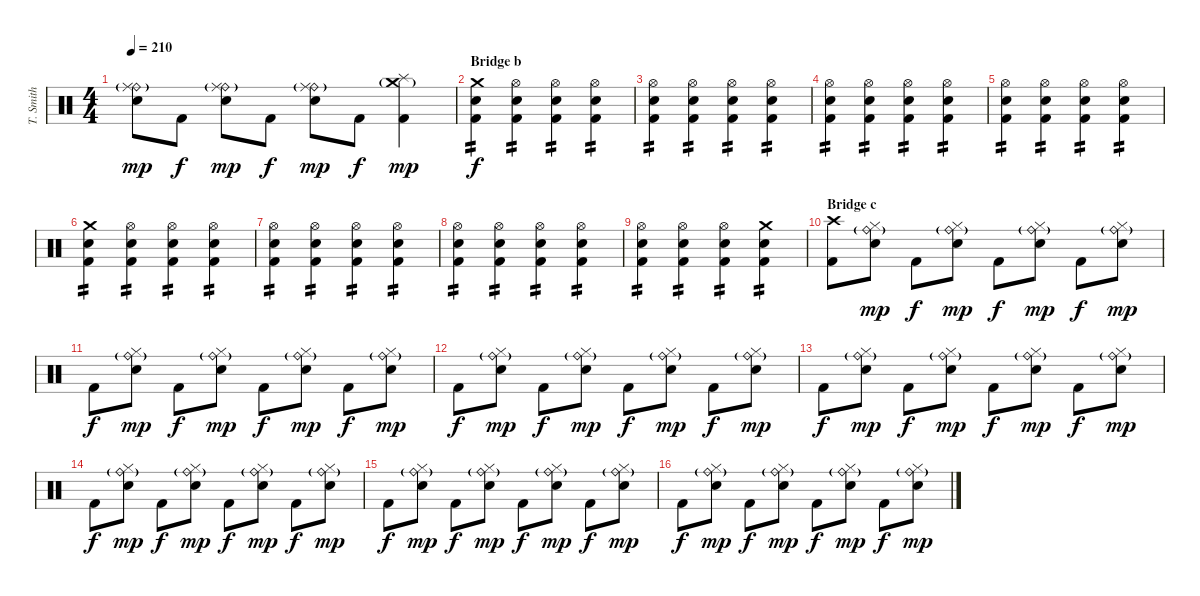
\track ("T. Smith" "T. Smith") {instrument percussion}
\staff {score}
\articulation defaults
\ts (4 4)
\tempo 210
\clef neutral
\ks c
("Ride (bell)" "Ride (middle)"{g} "Electric Snare (hit)").8{dy mp} "Kick (hit) 2".8{dy f} ("Ride (bell)" "Ride (middle)"{g} "Electric Snare (hit)").8{dy mp} "Kick (hit) 2".8{dy f} ("Ride (bell)" "Ride (middle)"{g} "Electric Snare (hit)").8{dy mp} "Kick (hit) 2".8{dy f} ("Splash (hit)" "Crash medium (hit)"{g} "Kick (hit) 2").4{dy mp} |
\section ("" "Bridge b")
("Crash medium (hit)" "Electric Snare (hit)" "Kick (hit) 2").4{tp 2 dy f} ("Hi-Hat (open)" "Electric Snare (hit)" "Kick (hit) 2").4{tp 2} ("Hi-Hat (open)" "Electric Snare (hit)" "Kick (hit) 2").4{tp 2} ("Hi-Hat (open)" "Electric Snare (hit)" "Kick (hit) 2").4{tp 2} |
("Hi-Hat (open)" "Electric Snare (hit)" "Kick (hit) 2").4{tp 2} ("Hi-Hat (open)" "Electric Snare (hit)" "Kick (hit) 2").4{tp 2} ("Hi-Hat (open)" "Electric Snare (hit)" "Kick (hit) 2").4{tp 2} ("Hi-Hat (open)" "Electric Snare (hit)" "Kick (hit) 2").4{tp 2} |
("Hi-Hat (open)" "Electric Snare (hit)" "Kick (hit) 2").4{tp 2} ("Hi-Hat (open)" "Electric Snare (hit)" "Kick (hit) 2").4{tp 2} ("Hi-Hat (open)" "Electric Snare (hit)" "Kick (hit) 2").4{tp 2} ("Hi-Hat (open)" "Electric Snare (hit)" "Kick (hit) 2").4{tp 2} |
("Hi-Hat (open)" "Electric Snare (hit)" "Kick (hit) 2").4{tp 2} ("Hi-Hat (open)" "Electric Snare (hit)" "Kick (hit) 2").4{tp 2} ("Hi-Hat (open)" "Electric Snare (hit)" "Kick (hit) 2").4{tp 2} ("Hi-Hat (open)" "Electric Snare (hit)" "Kick (hit) 2").4{tp 2} |
("Crash medium (hit)" "Electric Snare (hit)" "Kick (hit) 2").4{tp 2} ("Hi-Hat (open)" "Electric Snare (hit)" "Kick (hit) 2").4{tp 2} ("Hi-Hat (open)" "Electric Snare (hit)" "Kick (hit) 2").4{tp 2} ("Hi-Hat (open)" "Electric Snare (hit)" "Kick (hit) 2").4{tp 2} |
("Hi-Hat (open)" "Electric Snare (hit)" "Kick (hit) 2").4{tp 2} ("Hi-Hat (open)" "Electric Snare (hit)" "Kick (hit) 2").4{tp 2} ("Hi-Hat (open)" "Electric Snare (hit)" "Kick (hit) 2").4{tp 2} ("Hi-Hat (open)" "Electric Snare (hit)" "Kick (hit) 2").4{tp 2} |
("Hi-Hat (open)" "Electric Snare (hit)" "Kick (hit) 2").4{tp 2} ("Hi-Hat (open)" "Electric Snare (hit)" "Kick (hit) 2").4{tp 2} ("Hi-Hat (open)" "Electric Snare (hit)" "Kick (hit) 2").4{tp 2} ("Hi-Hat (open)" "Electric Snare (hit)" "Kick (hit) 2").4{tp 2} |
("Hi-Hat (open)" "Electric Snare (hit)" "Kick (hit) 2").4{tp 2} ("Hi-Hat (open)" "Electric Snare (hit)" "Kick (hit) 2").4{tp 2} ("Hi-Hat (open)" "Electric Snare (hit)" "Kick (hit) 2").4{tp 2} ("Crash medium (hit)" "Electric Snare (hit)" "Kick (hit) 2").4{tp 2} |
\section ("" "Bridge c")
("Crash high (hit)" "Kick (hit) 2").8 ("Hi-Hat (closed)" "Ride (bell)"{g} "Electric Snare (hit)").8{dy mp} "Kick (hit) 2".8{dy f} ("Hi-Hat (closed)" "Ride (bell)"{g} "Electric Snare (hit)").8{dy mp} "Kick (hit) 2".8{dy f} ("Hi-Hat (closed)" "Ride (bell)"{g} "Electric Snare (hit)").8{dy mp} "Kick (hit) 2".8{dy f} ("Hi-Hat (closed)" "Ride (bell)"{g} "Electric Snare (hit)").8{dy mp} |
"Kick (hit) 2".8{dy f} ("Hi-Hat (closed)" "Ride (bell)"{g} "Electric Snare (hit)").8{dy mp} "Kick (hit) 2".8{dy f} ("Hi-Hat (closed)" "Ride (bell)"{g} "Electric Snare (hit)").8{dy mp} "Kick (hit) 2".8{dy f} ("Hi-Hat (closed)" "Ride (bell)"{g} "Electric Snare (hit)").8{dy mp} "Kick (hit) 2".8{dy f} ("Hi-Hat (closed)" "Ride (bell)"{g} "Electric Snare (hit)").8{dy mp} |
"Kick (hit) 2".8{dy f} ("Hi-Hat (closed)" "Ride (bell)"{g} "Electric Snare (hit)").8{dy mp} "Kick (hit) 2".8{dy f} ("Hi-Hat (closed)" "Ride (bell)"{g} "Electric Snare (hit)").8{dy mp} "Kick (hit) 2".8{dy f} ("Hi-Hat (closed)" "Ride (bell)"{g} "Electric Snare (hit)").8{dy mp} "Kick (hit) 2".8{dy f} ("Hi-Hat (closed)" "Ride (bell)"{g} "Electric Snare (hit)").8{dy mp} |
"Kick (hit) 2".8{dy f} ("Hi-Hat (closed)" "Ride (bell)"{g} "Electric Snare (hit)").8{dy mp} "Kick (hit) 2".8{dy f} ("Hi-Hat (closed)" "Ride (bell)"{g} "Electric Snare (hit)").8{dy mp} "Kick (hit) 2".8{dy f} ("Hi-Hat (closed)" "Ride (bell)"{g} "Electric Snare (hit)").8{dy mp} "Kick (hit) 2".8{dy f} ("Hi-Hat (closed)" "Ride (bell)"{g} "Electric Snare (hit)").8{dy mp} |
"Kick (hit) 2".8{dy f} ("Hi-Hat (closed)" "Ride (bell)"{g} "Electric Snare (hit)").8{dy mp} "Kick (hit) 2".8{dy f} ("Hi-Hat (closed)" "Ride (bell)"{g} "Electric Snare (hit)").8{dy mp} "Kick (hit) 2".8{dy f} ("Hi-Hat (closed)" "Ride (bell)"{g} "Electric Snare (hit)").8{dy mp} "Kick (hit) 2".8{dy f} ("Hi-Hat (closed)" "Ride (bell)"{g} "Electric Snare (hit)").8{dy mp} |
"Kick (hit) 2".8{dy f} ("Hi-Hat (closed)" "Ride (bell)"{g} "Electric Snare (hit)").8{dy mp} "Kick (hit) 2".8{dy f} ("Hi-Hat (closed)" "Ride (bell)"{g} "Electric Snare (hit)").8{dy mp} "Kick (hit) 2".8{dy f} ("Hi-Hat (closed)" "Ride (bell)"{g} "Electric Snare (hit)").8{dy mp} "Kick (hit) 2".8{dy f} ("Hi-Hat (closed)" "Ride (bell)"{g} "Electric Snare (hit)").8{dy mp} |
"Kick (hit) 2".8{dy f} ("Hi-Hat (closed)" "Ride (bell)"{g} "Electric Snare (hit)").8{dy mp} "Kick (hit) 2".8{dy f} ("Hi-Hat (closed)" "Ride (bell)"{g} "Electric Snare (hit)").8{dy mp} "Kick (hit) 2".8{dy f} ("Hi-Hat (closed)" "Ride (bell)"{g} "Electric Snare (hit)").8{dy mp} "Kick (hit) 2".8{dy f} ("Hi-Hat (closed)" "Ride (bell)"{g} "Electric Snare (hit)").8{dy mp}
